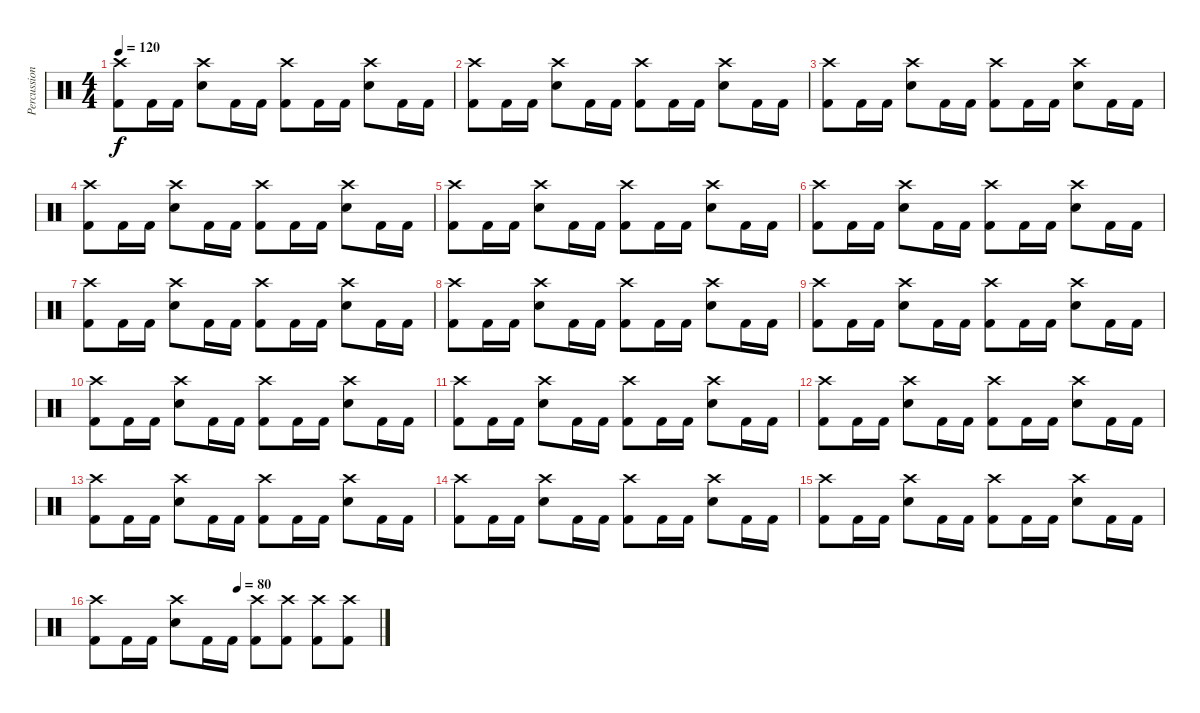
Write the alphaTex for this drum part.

\track ("Percussion" "Percussion") {instrument percussion}
\staff {score}
\articulation defaults
\ts (4 4)
\tempo 120
\clef neutral
\ks c
("Crash high (hit)" "Kick (hit) 2").8{dy f} "Kick (hit) 2".16 "Kick (hit) 2".16 ("Crash high (hit)" "Electric Snare (hit)").8 "Kick (hit) 2".16 "Kick (hit) 2".16 ("Crash high (hit)" "Kick (hit) 2").8 "Kick (hit) 2".16 "Kick (hit) 2".16 ("Crash high (hit)" "Electric Snare (hit)").8 "Kick (hit) 2".16 "Kick (hit) 2".16 |
("Crash high (hit)" "Kick (hit) 2").8 "Kick (hit) 2".16 "Kick (hit) 2".16 ("Crash high (hit)" "Electric Snare (hit)").8 "Kick (hit) 2".16 "Kick (hit) 2".16 ("Crash high (hit)" "Kick (hit) 2").8 "Kick (hit) 2".16 "Kick (hit) 2".16 ("Crash high (hit)" "Electric Snare (hit)").8 "Kick (hit) 2".16 "Kick (hit) 2".16 |
("Crash high (hit)" "Kick (hit) 2").8 "Kick (hit) 2".16 "Kick (hit) 2".16 ("Crash high (hit)" "Electric Snare (hit)").8 "Kick (hit) 2".16 "Kick (hit) 2".16 ("Crash high (hit)" "Kick (hit) 2").8 "Kick (hit) 2".16 "Kick (hit) 2".16 ("Crash high (hit)" "Electric Snare (hit)").8 "Kick (hit) 2".16 "Kick (hit) 2".16 |
("Crash high (hit)" "Kick (hit) 2").8 "Kick (hit) 2".16 "Kick (hit) 2".16 ("Crash high (hit)" "Electric Snare (hit)").8 "Kick (hit) 2".16 "Kick (hit) 2".16 ("Crash high (hit)" "Kick (hit) 2").8 "Kick (hit) 2".16 "Kick (hit) 2".16 ("Crash high (hit)" "Electric Snare (hit)").8 "Kick (hit) 2".16 "Kick (hit) 2".16 |
("Crash high (hit)" "Kick (hit) 2").8 "Kick (hit) 2".16 "Kick (hit) 2".16 ("Crash high (hit)" "Electric Snare (hit)").8 "Kick (hit) 2".16 "Kick (hit) 2".16 ("Crash high (hit)" "Kick (hit) 2").8 "Kick (hit) 2".16 "Kick (hit) 2".16 ("Crash high (hit)" "Electric Snare (hit)").8 "Kick (hit) 2".16 "Kick (hit) 2".16 |
("Crash high (hit)" "Kick (hit) 2").8 "Kick (hit) 2".16 "Kick (hit) 2".16 ("Crash high (hit)" "Electric Snare (hit)").8 "Kick (hit) 2".16 "Kick (hit) 2".16 ("Crash high (hit)" "Kick (hit) 2").8 "Kick (hit) 2".16 "Kick (hit) 2".16 ("Crash high (hit)" "Electric Snare (hit)").8 "Kick (hit) 2".16 "Kick (hit) 2".16 |
("Crash high (hit)" "Kick (hit) 2").8 "Kick (hit) 2".16 "Kick (hit) 2".16 ("Crash high (hit)" "Electric Snare (hit)").8 "Kick (hit) 2".16 "Kick (hit) 2".16 ("Crash high (hit)" "Kick (hit) 2").8 "Kick (hit) 2".16 "Kick (hit) 2".16 ("Crash high (hit)" "Electric Snare (hit)").8 "Kick (hit) 2".16 "Kick (hit) 2".16 |
("Crash high (hit)" "Kick (hit) 2").8 "Kick (hit) 2".16 "Kick (hit) 2".16 ("Crash high (hit)" "Electric Snare (hit)").8 "Kick (hit) 2".16 "Kick (hit) 2".16 ("Crash high (hit)" "Kick (hit) 2").8 "Kick (hit) 2".16 "Kick (hit) 2".16 ("Crash high (hit)" "Electric Snare (hit)").8 "Kick (hit) 2".16 "Kick (hit) 2".16 |
("Crash high (hit)" "Kick (hit) 2").8 "Kick (hit) 2".16 "Kick (hit) 2".16 ("Crash high (hit)" "Electric Snare (hit)").8 "Kick (hit) 2".16 "Kick (hit) 2".16 ("Crash high (hit)" "Kick (hit) 2").8 "Kick (hit) 2".16 "Kick (hit) 2".16 ("Crash high (hit)" "Electric Snare (hit)").8 "Kick (hit) 2".16 "Kick (hit) 2".16 |
("Crash high (hit)" "Kick (hit) 2").8 "Kick (hit) 2".16 "Kick (hit) 2".16 ("Crash high (hit)" "Electric Snare (hit)").8 "Kick (hit) 2".16 "Kick (hit) 2".16 ("Crash high (hit)" "Kick (hit) 2").8 "Kick (hit) 2".16 "Kick (hit) 2".16 ("Crash high (hit)" "Electric Snare (hit)").8 "Kick (hit) 2".16 "Kick (hit) 2".16 |
("Crash high (hit)" "Kick (hit) 2").8 "Kick (hit) 2".16 "Kick (hit) 2".16 ("Crash high (hit)" "Electric Snare (hit)").8 "Kick (hit) 2".16 "Kick (hit) 2".16 ("Crash high (hit)" "Kick (hit) 2").8 "Kick (hit) 2".16 "Kick (hit) 2".16 ("Crash high (hit)" "Electric Snare (hit)").8 "Kick (hit) 2".16 "Kick (hit) 2".16 |
("Crash high (hit)" "Kick (hit) 2").8 "Kick (hit) 2".16 "Kick (hit) 2".16 ("Crash high (hit)" "Electric Snare (hit)").8 "Kick (hit) 2".16 "Kick (hit) 2".16 ("Crash high (hit)" "Kick (hit) 2").8 "Kick (hit) 2".16 "Kick (hit) 2".16 ("Crash high (hit)" "Electric Snare (hit)").8 "Kick (hit) 2".16 "Kick (hit) 2".16 |
("Crash high (hit)" "Kick (hit) 2").8 "Kick (hit) 2".16 "Kick (hit) 2".16 ("Crash high (hit)" "Electric Snare (hit)").8 "Kick (hit) 2".16 "Kick (hit) 2".16 ("Crash high (hit)" "Kick (hit) 2").8 "Kick (hit) 2".16 "Kick (hit) 2".16 ("Crash high (hit)" "Electric Snare (hit)").8 "Kick (hit) 2".16 "Kick (hit) 2".16 |
("Crash high (hit)" "Kick (hit) 2").8 "Kick (hit) 2".16 "Kick (hit) 2".16 ("Crash high (hit)" "Electric Snare (hit)").8 "Kick (hit) 2".16 "Kick (hit) 2".16 ("Crash high (hit)" "Kick (hit) 2").8 "Kick (hit) 2".16 "Kick (hit) 2".16 ("Crash high (hit)" "Electric Snare (hit)").8 "Kick (hit) 2".16 "Kick (hit) 2".16 |
("Crash high (hit)" "Kick (hit) 2").8 "Kick (hit) 2".16 "Kick (hit) 2".16 ("Crash high (hit)" "Electric Snare (hit)").8 "Kick (hit) 2".16 "Kick (hit) 2".16 ("Crash high (hit)" "Kick (hit) 2").8 "Kick (hit) 2".16 "Kick (hit) 2".16 ("Crash high (hit)" "Electric Snare (hit)").8 "Kick (hit) 2".16 "Kick (hit) 2".16 |
\tempo (80 0.5)
("Crash high (hit)" "Kick (hit) 2").8 "Kick (hit) 2".16 "Kick (hit) 2".16 ("Crash high (hit)" "Electric Snare (hit)").8 "Kick (hit) 2".16 "Kick (hit) 2".16 ("Crash high (hit)" "Kick (hit) 2").8 ("Crash high (hit)" "Kick (hit) 2").8 ("Crash high (hit)" "Kick (hit) 2").8 ("Crash high (hit)" "Kick (hit) 2").8
